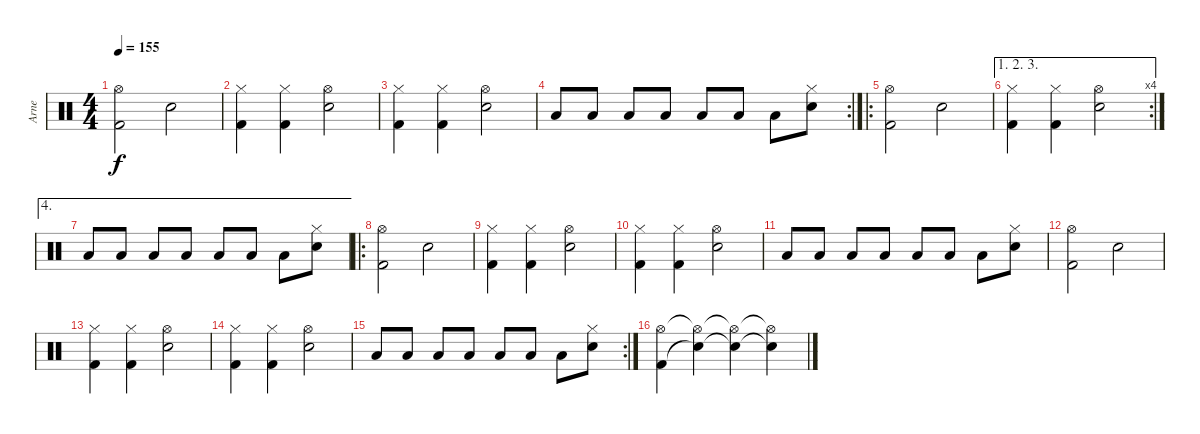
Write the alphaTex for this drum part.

\track ("Arne" "Arne") {instrument percussion}
\staff {score}
\articulation defaults
\ts (4 4)
\tempo 155
\clef neutral
\ks c
("Kick (hit) 2" "Hi-Hat (open)").2{dy f} "Electric Snare (hit)".2 |
("Kick (hit) 2" "Hi-Hat (closed)").4 ("Kick (hit) 2" "Hi-Hat (closed)").4 ("Electric Snare (hit)" "Hi-Hat (open)").2 |
("Kick (hit) 2" "Hi-Hat (closed)").4 ("Kick (hit) 2" "Hi-Hat (closed)").4 ("Electric Snare (hit)" "Hi-Hat (open)").2 |
\rc 2 "Low Tom (hit)".8 "Low Tom (hit)".8 "Low Tom (hit)".8 "Low Tom (hit)".8 "Low Tom (hit)".8 "Low Tom (hit)".8 "Low Tom (hit)".8
("Hi-Hat (closed)" "Electric Snare (hit)").8 |
\ro
("Kick (hit) 2" "Hi-Hat (open)").2 "Electric Snare (hit)".2 |
\ae (1 2 3)
\rc 4
("Kick (hit) 2" "Hi-Hat (closed)").4 ("Kick (hit) 2" "Hi-Hat (closed)").4 ("Electric Snare (hit)" "Hi-Hat (open)").2 |
\ae 4 "Low Tom (hit)".8 "Low Tom (hit)".8 "Low Tom (hit)".8 "Low Tom (hit)".8 "Low Tom (hit)".8 "Low Tom (hit)".8 "Low Tom (hit)".8
("Hi-Hat (closed)" "Electric Snare (hit)").8 |
\ro
("Kick (hit) 2" "Hi-Hat (open)").2 "Electric Snare (hit)".2 |
("Kick (hit) 2" "Hi-Hat (closed)").4 ("Kick (hit) 2" "Hi-Hat (closed)").4 ("Electric Snare (hit)" "Hi-Hat (open)").2 |
("Kick (hit) 2" "Hi-Hat (closed)").4 ("Kick (hit) 2" "Hi-Hat (closed)").4 ("Electric Snare (hit)" "Hi-Hat (open)").2 |
"Low Tom (hit)".8 "Low Tom (hit)".8 "Low Tom (hit)".8 "Low Tom (hit)".8 "Low Tom (hit)".8 "Low Tom (hit)".8 "Low Tom (hit)".8 ("Hi-Hat (closed)" "Electric Snare (hit)").8 |
("Kick (hit) 2" "Hi-Hat (open)").2 "Electric Snare (hit)".2 |
("Kick (hit) 2" "Hi-Hat (closed)").4 ("Kick (hit) 2" "Hi-Hat (closed)").4 ("Electric Snare (hit)" "Hi-Hat (open)").2 |
("Kick (hit) 2" "Hi-Hat (closed)").4 ("Kick (hit) 2" "Hi-Hat (closed)").4 ("Electric Snare (hit)" "Hi-Hat (open)").2 |
\rc 2 "Low Tom (hit)".8 "Low Tom (hit)".8 "Low Tom (hit)".8 "Low Tom (hit)".8 "Low Tom (hit)".8 "Low Tom (hit)".8 "Low Tom (hit)".8
("Hi-Hat (closed)" "Electric Snare (hit)").8 |
("Kick (hit) 2" "Hi-Hat (open)").4 ("Snare (hit)"{t} "Hi-Hat (open)"{t}).4 ("Snare (hit)"{t} "Hi-Hat (open)"{t}).4 ("Snare (hit)"{t} "Hi-Hat (open)"{t}).4
